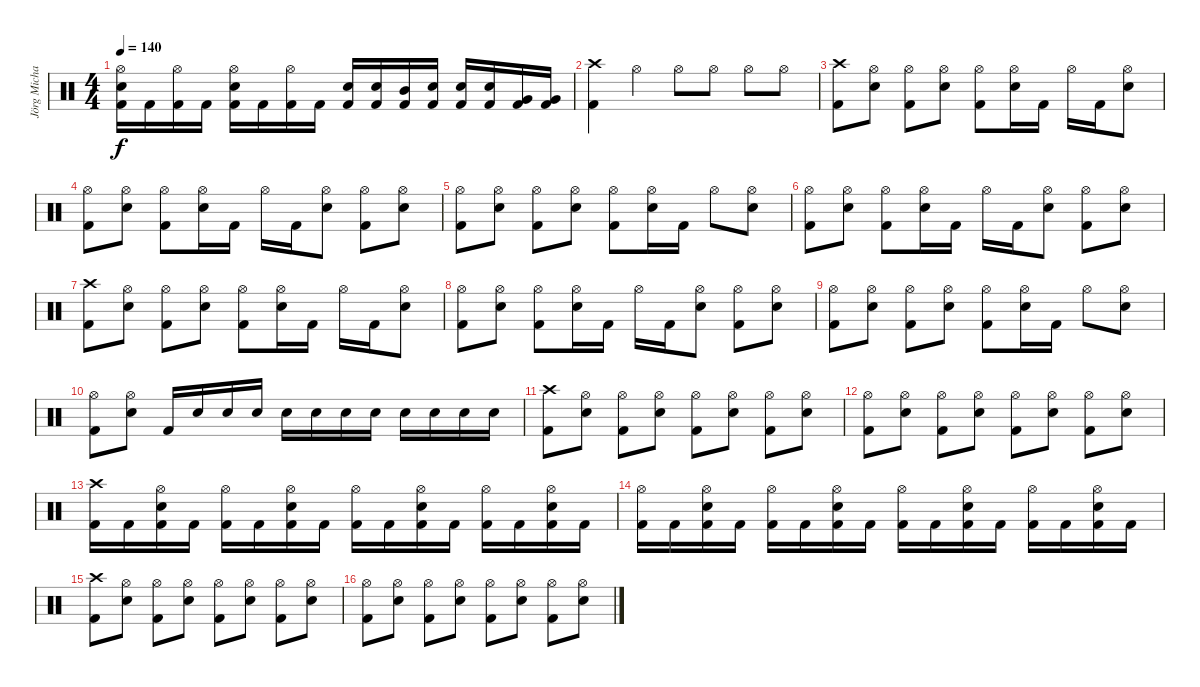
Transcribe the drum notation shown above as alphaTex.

\track ("Jörg Michael" "Jörg Micha") {instrument percussion}
\staff {score}
\articulation defaults
\ts (4 4)
\tempo 140
\clef neutral
\ks c
("Hi-Hat (open)" "Kick (hit) 2" "Electric Snare (hit)").16{dy f} "Kick (hit) 2".16 ("Hi-Hat (open)" "Kick (hit) 2").16 "Kick (hit) 2".16 ("Hi-Hat (open)" "Kick (hit) 2" "Electric Snare (hit)").16 "Kick (hit) 2".16 ("Hi-Hat (open)" "Kick (hit) 2").16 "Kick (hit) 2".16 ("Kick (hit) 2" "Electric Snare (hit)").16 ("Kick (hit) 2" "Electric Snare (hit)").16 ("Kick (hit) 2" "Mid Tom (hit)").16 ("Kick (hit) 2" "Electric Snare (hit)").16 ("Kick (hit) 2" "Electric Snare (hit)").16 ("Kick (hit) 2" "Electric Snare (hit)").16 ("Kick (hit) 2" "Very Low Tom (hit)").16 ("Kick (hit) 2" "Very Low Tom (hit)").16 |
("Crash high (hit)" "Kick (hit) 2").4 "Hi-Hat (open)".4 "Hi-Hat (open)".8 "Hi-Hat (open)".8 "Hi-Hat (open)".8 "Hi-Hat (open)".8 |
("Crash high (hit)" "Kick (hit) 2").8 ("Hi-Hat (open)" "Electric Snare (hit)").8 ("Hi-Hat (open)" "Kick (hit) 2").8 ("Hi-Hat (open)" "Electric Snare (hit)").8 ("Hi-Hat (open)" "Kick (hit) 2").8 ("Hi-Hat (open)" "Electric Snare (hit)").16 "Kick (hit) 2".16 "Hi-Hat (open)".16 "Kick (hit) 2".16 ("Hi-Hat (open)" "Electric Snare (hit)").8 |
("Hi-Hat (open)" "Kick (hit) 2").8 ("Hi-Hat (open)" "Electric Snare (hit)").8 ("Hi-Hat (open)" "Kick (hit) 2").8 ("Hi-Hat (open)" "Electric Snare (hit)").16 "Kick (hit) 2".16 "Hi-Hat (open)".16 "Kick (hit) 2".16 ("Electric Snare (hit)" "Hi-Hat (open)").8 ("Hi-Hat (open)" "Kick (hit) 2").8 ("Hi-Hat (open)" "Electric Snare (hit)").8 |
("Hi-Hat (open)" "Kick (hit) 2").8 ("Hi-Hat (open)" "Electric Snare (hit)").8 ("Hi-Hat (open)" "Kick (hit) 2").8 ("Hi-Hat (open)" "Electric Snare (hit)").8 ("Hi-Hat (open)" "Kick (hit) 2").8 ("Hi-Hat (open)" "Electric Snare (hit)").16 "Kick (hit) 2".16 "Hi-Hat (open)".8 ("Hi-Hat (open)" "Electric Snare (hit)").8 |
("Hi-Hat (open)" "Kick (hit) 2").8 ("Hi-Hat (open)" "Electric Snare (hit)").8 ("Hi-Hat (open)" "Kick (hit) 2").8 ("Hi-Hat (open)" "Electric Snare (hit)").16 "Kick (hit) 2".16 "Hi-Hat (open)".16 "Kick (hit) 2".16 ("Hi-Hat (open)" "Electric Snare (hit)").8 ("Hi-Hat (open)" "Kick (hit) 2").8 ("Hi-Hat (open)" "Electric Snare (hit)").8 |
("Crash high (hit)" "Kick (hit) 2").8 ("Hi-Hat (open)" "Electric Snare (hit)").8 ("Hi-Hat (open)" "Kick (hit) 2").8 ("Hi-Hat (open)" "Electric Snare (hit)").8 ("Hi-Hat (open)" "Kick (hit) 2").8 ("Hi-Hat (open)" "Electric Snare (hit)").16 "Kick (hit) 2".16 "Hi-Hat (open)".16 "Kick (hit) 2".16 ("Hi-Hat (open)" "Electric Snare (hit)").8 |
("Hi-Hat (open)" "Kick (hit) 2").8 ("Hi-Hat (open)" "Electric Snare (hit)").8 ("Hi-Hat (open)" "Kick (hit) 2").8 ("Hi-Hat (open)" "Electric Snare (hit)").16 "Kick (hit) 2".16 "Hi-Hat (open)".16 "Kick (hit) 2".16 ("Electric Snare (hit)" "Hi-Hat (open)").8 ("Hi-Hat (open)" "Kick (hit) 2").8 ("Hi-Hat (open)" "Electric Snare (hit)").8 |
("Hi-Hat (open)" "Kick (hit) 2").8 ("Hi-Hat (open)" "Electric Snare (hit)").8 ("Hi-Hat (open)" "Kick (hit) 2").8 ("Hi-Hat (open)" "Electric Snare (hit)").8 ("Hi-Hat (open)" "Kick (hit) 2").8 ("Hi-Hat (open)" "Electric Snare (hit)").16 "Kick (hit) 2".16 "Hi-Hat (open)".8 ("Hi-Hat (open)" "Electric Snare (hit)").8 |
("Hi-Hat (open)" "Kick (hit) 2").8 ("Hi-Hat (open)" "Electric Snare (hit)").8 "Kick (hit) 2".16 "Electric Snare (hit)".16 "Electric Snare (hit)".16 "Electric Snare (hit)".16 "Electric Snare (hit)".16 "Electric Snare (hit)".16 "Electric Snare (hit)".16 "Electric Snare (hit)".16 "Electric Snare (hit)".16 "Electric Snare (hit)".16 "Electric Snare (hit)".16 "Electric Snare (hit)".16 |
("Crash high (hit)" "Kick (hit) 2").8 ("Hi-Hat (open)" "Electric Snare (hit)").8 ("Hi-Hat (open)" "Kick (hit) 2").8 ("Hi-Hat (open)" "Electric Snare (hit)").8 ("Hi-Hat (open)" "Kick (hit) 2").8 ("Hi-Hat (open)" "Electric Snare (hit)").8 ("Hi-Hat (open)" "Kick (hit) 2").8 ("Hi-Hat (open)" "Electric Snare (hit)").8 |
("Hi-Hat (open)" "Kick (hit) 2").8 ("Hi-Hat (open)" "Electric Snare (hit)").8 ("Hi-Hat (open)" "Kick (hit) 2").8 ("Hi-Hat (open)" "Electric Snare (hit)").8 ("Hi-Hat (open)" "Kick (hit) 2").8 ("Hi-Hat (open)" "Electric Snare (hit)").8 ("Hi-Hat (open)" "Kick (hit) 2").8 ("Hi-Hat (open)" "Electric Snare (hit)").8 |
("Crash high (hit)" "Kick (hit) 2").16 "Kick (hit) 2".16 ("Electric Snare (hit)" "Kick (hit) 2" "Hi-Hat (open)").16 "Kick (hit) 2".16 ("Kick (hit) 2" "Hi-Hat (open)").16 "Kick (hit) 2".16 ("Electric Snare (hit)" "Kick (hit) 2" "Hi-Hat (open)").16 "Kick (hit) 2".16 ("Kick (hit) 2" "Hi-Hat (open)").16 "Kick (hit) 2".16 ("Electric Snare (hit)" "Kick (hit) 2" "Hi-Hat (open)").16 "Kick (hit) 2".16 ("Kick (hit) 2" "Hi-Hat (open)").16 "Kick (hit) 2".16 ("Electric Snare (hit)" "Kick (hit) 2" "Hi-Hat (open)").16 "Kick (hit) 2".16 |
("Hi-Hat (open)" "Kick (hit) 2").16 "Kick (hit) 2".16 ("Electric Snare (hit)" "Kick (hit) 2" "Hi-Hat (open)").16 "Kick (hit) 2".16 ("Kick (hit) 2" "Hi-Hat (open)").16 "Kick (hit) 2".16 ("Electric Snare (hit)" "Kick (hit) 2" "Hi-Hat (open)").16 "Kick (hit) 2".16 ("Kick (hit) 2" "Hi-Hat (open)").16 "Kick (hit) 2".16 ("Electric Snare (hit)" "Kick (hit) 2" "Hi-Hat (open)").16 "Kick (hit) 2".16 ("Kick (hit) 2" "Hi-Hat (open)").16 "Kick (hit) 2".16 ("Electric Snare (hit)" "Kick (hit) 2" "Hi-Hat (open)").16 "Kick (hit) 2".16 |
("Crash high (hit)" "Kick (hit) 2").8 ("Hi-Hat (open)" "Electric Snare (hit)").8 ("Hi-Hat (open)" "Kick (hit) 2").8 ("Hi-Hat (open)" "Electric Snare (hit)").8 ("Hi-Hat (open)" "Kick (hit) 2").8 ("Hi-Hat (open)" "Electric Snare (hit)").8 ("Hi-Hat (open)" "Kick (hit) 2").8 ("Hi-Hat (open)" "Electric Snare (hit)").8 |
("Hi-Hat (open)" "Kick (hit) 2").8 ("Hi-Hat (open)" "Electric Snare (hit)").8 ("Hi-Hat (open)" "Kick (hit) 2").8 ("Hi-Hat (open)" "Electric Snare (hit)").8 ("Hi-Hat (open)" "Kick (hit) 2").8 ("Hi-Hat (open)" "Electric Snare (hit)").8 ("Hi-Hat (open)" "Kick (hit) 2").8 ("Hi-Hat (open)" "Electric Snare (hit)").8
